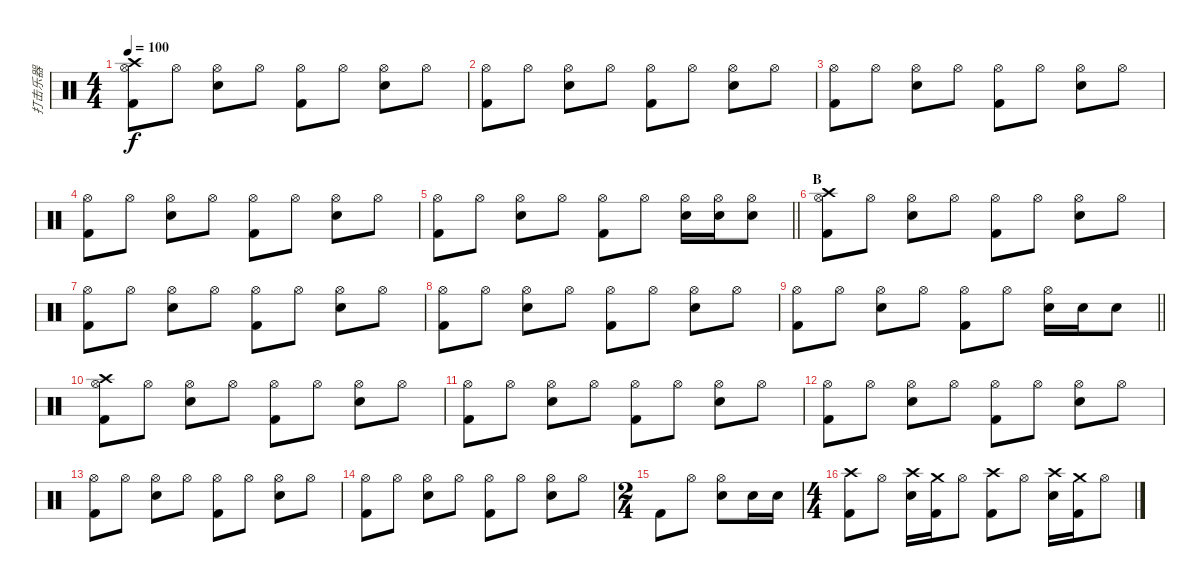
\track ("打击乐器" "打击乐器") {instrument percussion}
\staff {score}
\articulation defaults
\ts (4 4)
\tempo 100
\clef neutral
\ks c
("Kick (hit) 2" "Hi-Hat (open)" "Crash high (hit)").8{dy f} "Hi-Hat (open)".8 ("Electric Snare (hit)" "Hi-Hat (open)").8 "Hi-Hat (open)".8 ("Kick (hit) 2" "Hi-Hat (open)").8 "Hi-Hat (open)".8 ("Electric Snare (hit)" "Hi-Hat (open)").8 "Hi-Hat (open)".8 |
("Kick (hit) 2" "Hi-Hat (open)").8 "Hi-Hat (open)".8 ("Electric Snare (hit)" "Hi-Hat (open)").8 "Hi-Hat (open)".8 ("Kick (hit) 2" "Hi-Hat (open)").8 "Hi-Hat (open)".8 ("Electric Snare (hit)" "Hi-Hat (open)").8 "Hi-Hat (open)".8 |
("Kick (hit) 2" "Hi-Hat (open)").8 "Hi-Hat (open)".8 ("Electric Snare (hit)" "Hi-Hat (open)").8 "Hi-Hat (open)".8 ("Kick (hit) 2" "Hi-Hat (open)").8 "Hi-Hat (open)".8 ("Electric Snare (hit)" "Hi-Hat (open)").8 "Hi-Hat (open)".8 |
("Kick (hit) 2" "Hi-Hat (open)").8 "Hi-Hat (open)".8 ("Electric Snare (hit)" "Hi-Hat (open)").8 "Hi-Hat (open)".8 ("Kick (hit) 2" "Hi-Hat (open)").8 "Hi-Hat (open)".8 ("Electric Snare (hit)" "Hi-Hat (open)").8 "Hi-Hat (open)".8 |
\barLineRight lightlight
("Kick (hit) 2" "Hi-Hat (open)").8 "Hi-Hat (open)".8 ("Electric Snare (hit)" "Hi-Hat (open)").8 "Hi-Hat (open)".8 ("Kick (hit) 2" "Hi-Hat (open)").8 "Hi-Hat (open)".8 ("Electric Snare (hit)" "Hi-Hat (open)").16 ("Electric Snare (hit)" "Hi-Hat (open)").16 ("Electric Snare (hit)" "Hi-Hat (open)").8 |
\section ("" "B")
("Kick (hit) 2" "Hi-Hat (open)" "Crash high (hit)").8 "Hi-Hat (open)".8 ("Electric Snare (hit)" "Hi-Hat (open)").8 "Hi-Hat (open)".8 ("Kick (hit) 2" "Hi-Hat (open)").8 "Hi-Hat (open)".8 ("Electric Snare (hit)" "Hi-Hat (open)").8 "Hi-Hat (open)".8 |
("Kick (hit) 2" "Hi-Hat (open)").8 "Hi-Hat (open)".8 ("Electric Snare (hit)" "Hi-Hat (open)").8 "Hi-Hat (open)".8 ("Kick (hit) 2" "Hi-Hat (open)").8 "Hi-Hat (open)".8 ("Electric Snare (hit)" "Hi-Hat (open)").8 "Hi-Hat (open)".8 |
("Kick (hit) 2" "Hi-Hat (open)").8 "Hi-Hat (open)".8 ("Electric Snare (hit)" "Hi-Hat (open)").8 "Hi-Hat (open)".8 ("Kick (hit) 2" "Hi-Hat (open)").8 "Hi-Hat (open)".8 ("Electric Snare (hit)" "Hi-Hat (open)").8 "Hi-Hat (open)".8 |
\barLineRight lightlight
("Kick (hit) 2" "Hi-Hat (open)").8 "Hi-Hat (open)".8 ("Electric Snare (hit)" "Hi-Hat (open)").8 "Hi-Hat (open)".8 ("Kick (hit) 2" "Hi-Hat (open)").8 "Hi-Hat (open)".8 ("Electric Snare (hit)" "Hi-Hat (open)").16 "Electric Snare (hit)".16 "Electric Snare (hit)".8 |
("Kick (hit) 2" "Hi-Hat (open)" "Crash high (hit)").8 "Hi-Hat (open)".8 ("Electric Snare (hit)" "Hi-Hat (open)").8 "Hi-Hat (open)".8 ("Kick (hit) 2" "Hi-Hat (open)").8 "Hi-Hat (open)".8 ("Electric Snare (hit)" "Hi-Hat (open)").8 "Hi-Hat (open)".8 |
("Kick (hit) 2" "Hi-Hat (open)").8 "Hi-Hat (open)".8 ("Electric Snare (hit)" "Hi-Hat (open)").8 "Hi-Hat (open)".8 ("Kick (hit) 2" "Hi-Hat (open)").8 "Hi-Hat (open)".8 ("Electric Snare (hit)" "Hi-Hat (open)").8 "Hi-Hat (open)".8 |
("Kick (hit) 2" "Hi-Hat (open)").8 "Hi-Hat (open)".8 ("Electric Snare (hit)" "Hi-Hat (open)").8 "Hi-Hat (open)".8 ("Kick (hit) 2" "Hi-Hat (open)").8 "Hi-Hat (open)".8 ("Electric Snare (hit)" "Hi-Hat (open)").8 "Hi-Hat (open)".8 |
("Kick (hit) 2" "Hi-Hat (open)").8 "Hi-Hat (open)".8 ("Electric Snare (hit)" "Hi-Hat (open)").8 "Hi-Hat (open)".8 ("Kick (hit) 2" "Hi-Hat (open)").8 "Hi-Hat (open)".8 ("Electric Snare (hit)" "Hi-Hat (open)").8 "Hi-Hat (open)".8 |
("Kick (hit) 2" "Hi-Hat (open)").8 "Hi-Hat (open)".8 ("Electric Snare (hit)" "Hi-Hat (open)").8 "Hi-Hat (open)".8 ("Kick (hit) 2" "Hi-Hat (open)").8 "Hi-Hat (open)".8 ("Electric Snare (hit)" "Hi-Hat (open)").8 "Hi-Hat (open)".8 |
\ts (2 4)
"Kick (hit) 2".8 "Hi-Hat (open)".8 ("Electric Snare (hit)" "Hi-Hat (open)").8 "Electric Snare (hit)".16 "Electric Snare (hit)".16 |
\ts (4 4)
("Crash high (hit)" "Kick (hit) 2").8 "Hi-Hat (open)".8 ("Electric Snare (hit)" "Crash high (hit)").16 ("Kick (hit) 2" "Crash medium (hit)").16 "Hi-Hat (open)".8 ("Crash high (hit)" "Kick (hit) 2").8 "Hi-Hat (open)".8 ("Electric Snare (hit)" "Crash high (hit)").16 ("Kick (hit) 2" "Crash medium (hit)").16 "Hi-Hat (open)".8
